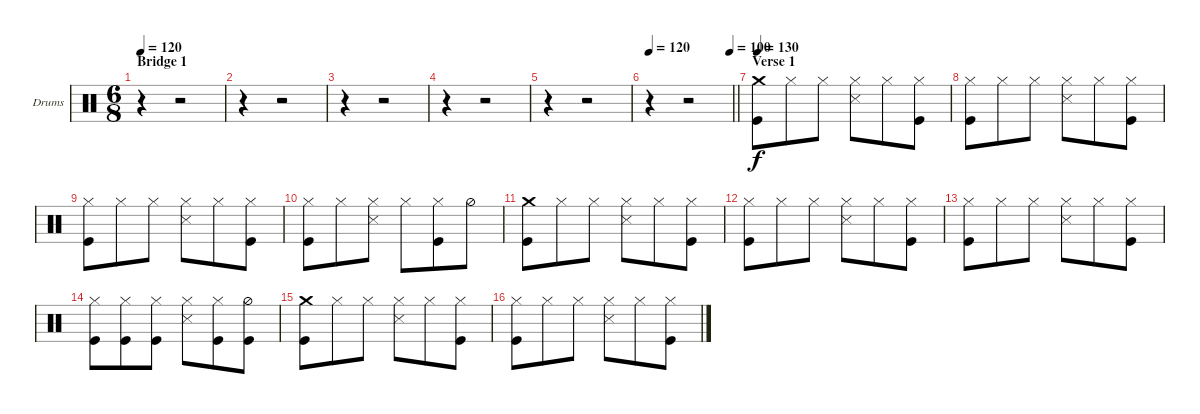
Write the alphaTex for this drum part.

\bracketExtendMode groupsimilarinstruments
\firstSystemTrackNameOrientation horizontal
\otherSystemsTrackNameOrientation horizontal
\track ("drums (Anton Zulganov)" "Drums") {instrument percussion}
\staff {score}
\articulation defaults
\ts (6 8)
\beaming (8 2 2 2 2)
\section ("" "Bridge 1")
\tempo 120
\clef neutral
\ks aminor
r.4{dy f} r.2 |
\beaming (8 3 3)
r.4 r.2 |
r.4 r.2 |
r.4 r.2 |
r.4 r.2 |
\tempo 120
\tempo (100 0.975)
\barLineRight lightlight
r.4 r.2 |
\section ("" "Verse 1")
\tempo 130
("Kick (hit)" "Crash medium (hit)").8 "Hi-Hat (closed)".8 "Hi-Hat (closed)".8 ("Snare (side stick) 3" "Hi-Hat (closed)").8 "Hi-Hat (closed)".8 ("Kick (hit)" "Hi-Hat (closed)").8 |
("Kick (hit)" "Hi-Hat (closed)").8 "Hi-Hat (closed)".8 "Hi-Hat (closed)".8 ("Snare (side stick) 3" "Hi-Hat (closed)").8 "Hi-Hat (closed)".8 ("Kick (hit)" "Hi-Hat (closed)").8 |
("Kick (hit)" "Hi-Hat (closed)").8 "Hi-Hat (closed)".8 "Hi-Hat (closed)".8 ("Snare (side stick) 3" "Hi-Hat (closed)").8 "Hi-Hat (closed)".8 ("Kick (hit)" "Hi-Hat (closed)").8 |
("Kick (hit)" "Hi-Hat (closed)").8 "Hi-Hat (closed)".8 ("Snare (side stick) 3" "Hi-Hat (closed)").8 "Hi-Hat (closed)".8 ("Kick (hit)" "Hi-Hat (closed)").8 "Hi-Hat (half)".8 |
("Kick (hit)" "Crash medium (hit)").8 "Hi-Hat (closed)".8 "Hi-Hat (closed)".8 ("Snare (side stick) 3" "Hi-Hat (closed)").8 "Hi-Hat (closed)".8 ("Kick (hit)" "Hi-Hat (closed)").8 |
("Kick (hit)" "Hi-Hat (closed)").8 "Hi-Hat (closed)".8 "Hi-Hat (closed)".8 ("Snare (side stick) 3" "Hi-Hat (closed)").8 "Hi-Hat (closed)".8 ("Kick (hit)" "Hi-Hat (closed)").8 |
("Kick (hit)" "Hi-Hat (closed)").8 "Hi-Hat (closed)".8 "Hi-Hat (closed)".8 ("Snare (side stick) 3" "Hi-Hat (closed)").8 "Hi-Hat (closed)".8 ("Kick (hit)" "Hi-Hat (closed)").8 |
("Kick (hit)" "Hi-Hat (closed)").8 ("Kick (hit)" "Hi-Hat (closed)").8 ("Kick (hit)" "Hi-Hat (closed)").8 ("Snare (side stick) 3" "Hi-Hat (closed)").8 ("Kick (hit)" "Hi-Hat (closed)").8 ("Kick (hit)" "Hi-Hat (half)").8 |
("Kick (hit)" "Crash medium (hit)").8 "Hi-Hat (closed)".8 "Hi-Hat (closed)".8 ("Snare (side stick) 3" "Hi-Hat (closed)").8 "Hi-Hat (closed)".8 ("Kick (hit)" "Hi-Hat (closed)").8 |
("Kick (hit)" "Hi-Hat (closed)").8 "Hi-Hat (closed)".8 "Hi-Hat (closed)".8 ("Snare (side stick) 3" "Hi-Hat (closed)").8 "Hi-Hat (closed)".8 ("Kick (hit)" "Hi-Hat (closed)").8
